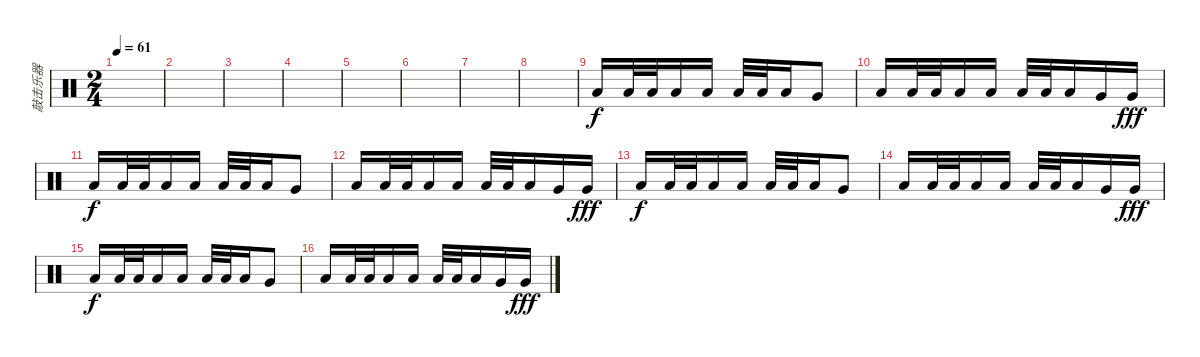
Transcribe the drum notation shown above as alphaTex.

\track ("敲击乐器" "敲击乐器") {instrument percussion}
\staff {score}
\articulation defaults
\ts (2 4)
\tempo 61
\clef neutral
\ks c
|
|
|
|
|
|
|
|
"Low Floor Tom (hit)".16 "Low Floor Tom (hit)".32 "Low Floor Tom (hit)".32 "Low Floor Tom (hit)".16 "Low Floor Tom (hit)".16 "Low Floor Tom (hit)".32 "Low Floor Tom (hit)".32 "Low Floor Tom (hit)".16 "Very Low Tom (hit)".8 |
"Low Floor Tom (hit)".16 "Low Floor Tom (hit)".32 "Low Floor Tom (hit)".32 "Low Floor Tom (hit)".16 "Low Floor Tom (hit)".16 "Low Floor Tom (hit)".32 "Low Floor Tom (hit)".32 "Low Floor Tom (hit)".16 "Very Low Tom (hit)".16 "Very Low Tom (hit)".16{dy fff} |
"Low Floor Tom (hit)".16{dy f} "Low Floor Tom (hit)".32 "Low Floor Tom (hit)".32 "Low Floor Tom (hit)".16 "Low Floor Tom (hit)".16 "Low Floor Tom (hit)".32 "Low Floor Tom (hit)".32 "Low Floor Tom (hit)".16 "Very Low Tom (hit)".8 |
"Low Floor Tom (hit)".16 "Low Floor Tom (hit)".32 "Low Floor Tom (hit)".32 "Low Floor Tom (hit)".16 "Low Floor Tom (hit)".16 "Low Floor Tom (hit)".32 "Low Floor Tom (hit)".32 "Low Floor Tom (hit)".16 "Very Low Tom (hit)".16 "Very Low Tom (hit)".16{dy fff} |
"Low Floor Tom (hit)".16{dy f} "Low Floor Tom (hit)".32 "Low Floor Tom (hit)".32 "Low Floor Tom (hit)".16 "Low Floor Tom (hit)".16 "Low Floor Tom (hit)".32 "Low Floor Tom (hit)".32 "Low Floor Tom (hit)".16 "Very Low Tom (hit)".8 |
"Low Floor Tom (hit)".16 "Low Floor Tom (hit)".32 "Low Floor Tom (hit)".32 "Low Floor Tom (hit)".16 "Low Floor Tom (hit)".16 "Low Floor Tom (hit)".32 "Low Floor Tom (hit)".32 "Low Floor Tom (hit)".16 "Very Low Tom (hit)".16 "Very Low Tom (hit)".16{dy fff} |
"Low Floor Tom (hit)".16{dy f} "Low Floor Tom (hit)".32 "Low Floor Tom (hit)".32 "Low Floor Tom (hit)".16 "Low Floor Tom (hit)".16 "Low Floor Tom (hit)".32 "Low Floor Tom (hit)".32 "Low Floor Tom (hit)".16 "Very Low Tom (hit)".8 |
"Low Floor Tom (hit)".16 "Low Floor Tom (hit)".32 "Low Floor Tom (hit)".32 "Low Floor Tom (hit)".16 "Low Floor Tom (hit)".16 "Low Floor Tom (hit)".32 "Low Floor Tom (hit)".32 "Low Floor Tom (hit)".16 "Very Low Tom (hit)".16 "Very Low Tom (hit)".16{dy fff}
